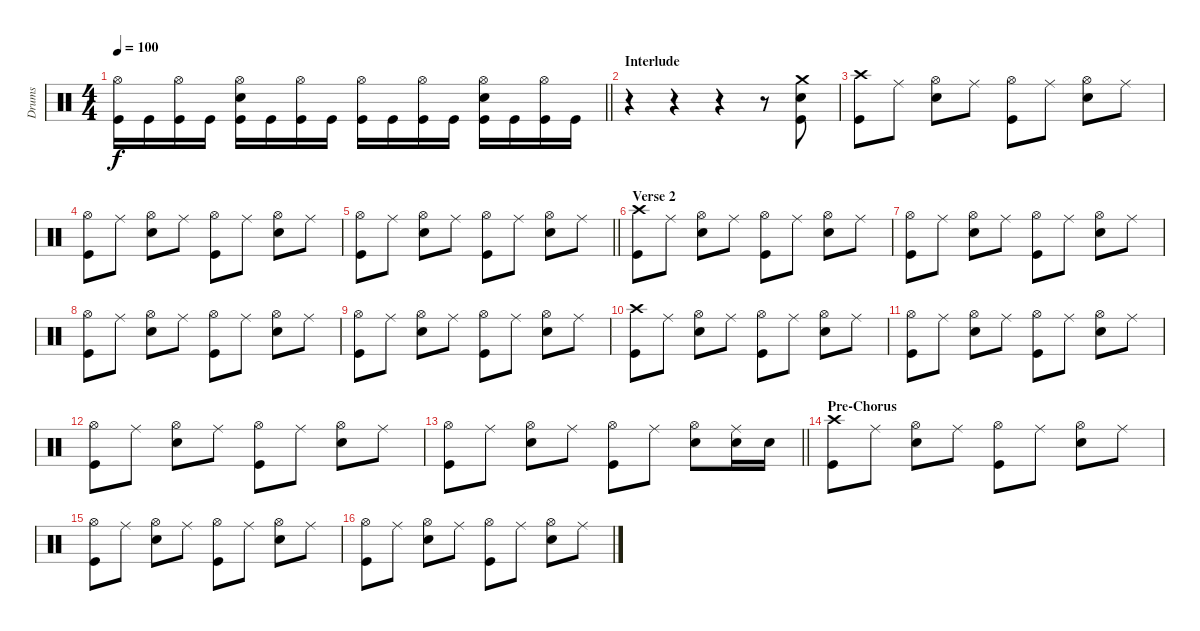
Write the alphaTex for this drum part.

\track ("Drums" "Drums") {instrument percussion}
\staff {score}
\articulation defaults
\ts (4 4)
\tempo 100
\clef neutral
\barLineRight lightlight
\ks c
("Hi-Hat (open)" "Kick (hit)").16{dy f} "Kick (hit)".16 ("Hi-Hat (open)" "Kick (hit)").16 "Kick (hit)".16 ("Hi-Hat (open)" "Electric Snare (hit)" "Kick (hit)").16 "Kick (hit)".16 ("Hi-Hat (open)" "Kick (hit)").16 "Kick (hit)".16 ("Hi-Hat (open)" "Kick (hit)").16 "Kick (hit)".16 ("Hi-Hat (open)" "Kick (hit)").16 "Kick (hit)".16 ("Hi-Hat (open)" "Electric Snare (hit)" "Kick (hit)").16 "Kick (hit)".16 ("Hi-Hat (open)" "Kick (hit)").16 "Kick (hit)".16 |
\section ("" "Interlude")
r.4 r.4 r.4 r.8 ("Crash medium (hit)" "Electric Snare (hit)" "Kick (hit)").8 |
("Crash high (hit)" "Kick (hit)").8 "Ride (middle)".8 ("Hi-Hat (open)" "Electric Snare (hit)").8 "Ride (middle)".8 ("Hi-Hat (open)" "Kick (hit)").8 "Ride (middle)".8 ("Hi-Hat (open)" "Electric Snare (hit)").8 "Ride (middle)".8 |
("Hi-Hat (open)" "Kick (hit)").8 "Ride (middle)".8 ("Hi-Hat (open)" "Electric Snare (hit)").8 "Ride (middle)".8 ("Hi-Hat (open)" "Kick (hit)").8 "Ride (middle)".8 ("Hi-Hat (open)" "Electric Snare (hit)").8 "Ride (middle)".8 |
\barLineRight lightlight
("Hi-Hat (open)" "Kick (hit)").8 "Ride (middle)".8 ("Hi-Hat (open)" "Electric Snare (hit)").8 "Ride (middle)".8 ("Hi-Hat (open)" "Kick (hit)").8 "Ride (middle)".8 ("Hi-Hat (open)" "Electric Snare (hit)").8 "Ride (middle)".8 |
\section ("" "Verse 2")
("Crash high (hit)" "Kick (hit)").8 "Ride (middle)".8 ("Hi-Hat (open)" "Electric Snare (hit)").8 "Ride (middle)".8 ("Hi-Hat (open)" "Kick (hit)").8 "Ride (middle)".8 ("Hi-Hat (open)" "Electric Snare (hit)").8 "Ride (middle)".8 |
("Hi-Hat (open)" "Kick (hit)").8 "Ride (middle)".8 ("Hi-Hat (open)" "Electric Snare (hit)").8 "Ride (middle)".8 ("Hi-Hat (open)" "Kick (hit)").8 "Ride (middle)".8 ("Hi-Hat (open)" "Electric Snare (hit)").8 "Ride (middle)".8 |
("Hi-Hat (open)" "Kick (hit)").8 "Ride (middle)".8 ("Hi-Hat (open)" "Electric Snare (hit)").8 "Ride (middle)".8 ("Hi-Hat (open)" "Kick (hit)").8 "Ride (middle)".8 ("Hi-Hat (open)" "Electric Snare (hit)").8 "Ride (middle)".8 |
("Hi-Hat (open)" "Kick (hit)").8 "Ride (middle)".8 ("Hi-Hat (open)" "Electric Snare (hit)").8 "Ride (middle)".8 ("Hi-Hat (open)" "Kick (hit)").8 "Ride (middle)".8 ("Hi-Hat (open)" "Electric Snare (hit)").8 "Ride (middle)".8 |
("Crash high (hit)" "Kick (hit)").8 "Ride (middle)".8 ("Hi-Hat (open)" "Electric Snare (hit)").8 "Ride (middle)".8 ("Hi-Hat (open)" "Kick (hit)").8 "Ride (middle)".8 ("Hi-Hat (open)" "Electric Snare (hit)").8 "Ride (middle)".8 |
("Hi-Hat (open)" "Kick (hit)").8 "Ride (middle)".8 ("Hi-Hat (open)" "Electric Snare (hit)").8 "Ride (middle)".8 ("Hi-Hat (open)" "Kick (hit)").8 "Ride (middle)".8 ("Hi-Hat (open)" "Electric Snare (hit)").8 "Ride (middle)".8 |
("Hi-Hat (open)" "Kick (hit)").8 "Ride (middle)".8 ("Hi-Hat (open)" "Electric Snare (hit)").8 "Ride (middle)".8 ("Hi-Hat (open)" "Kick (hit)").8 "Ride (middle)".8 ("Hi-Hat (open)" "Electric Snare (hit)").8 "Ride (middle)".8 |
\barLineRight lightlight
("Hi-Hat (open)" "Kick (hit)").8 "Ride (middle)".8 ("Hi-Hat (open)" "Electric Snare (hit)").8 "Ride (middle)".8 ("Hi-Hat (open)" "Kick (hit)").8 "Ride (middle)".8 ("Hi-Hat (open)" "Electric Snare (hit)").8 ("Ride (middle)" "Electric Snare (hit)").16 "Electric Snare (hit)".16 |
\section ("" "Pre-Chorus")
("Crash high (hit)" "Kick (hit)").8 "Ride (middle)".8 ("Hi-Hat (open)" "Electric Snare (hit)").8 "Ride (middle)".8 ("Hi-Hat (open)" "Kick (hit)").8 "Ride (middle)".8 ("Hi-Hat (open)" "Electric Snare (hit)").8 "Ride (middle)".8 |
("Hi-Hat (open)" "Kick (hit)").8 "Ride (middle)".8 ("Hi-Hat (open)" "Electric Snare (hit)").8 "Ride (middle)".8 ("Hi-Hat (open)" "Kick (hit)").8 "Ride (middle)".8 ("Hi-Hat (open)" "Electric Snare (hit)").8 "Ride (middle)".8 |
("Hi-Hat (open)" "Kick (hit)").8 "Ride (middle)".8 ("Hi-Hat (open)" "Electric Snare (hit)").8 "Ride (middle)".8 ("Hi-Hat (open)" "Kick (hit)").8 "Ride (middle)".8 ("Hi-Hat (open)" "Electric Snare (hit)").8 "Ride (middle)".8
